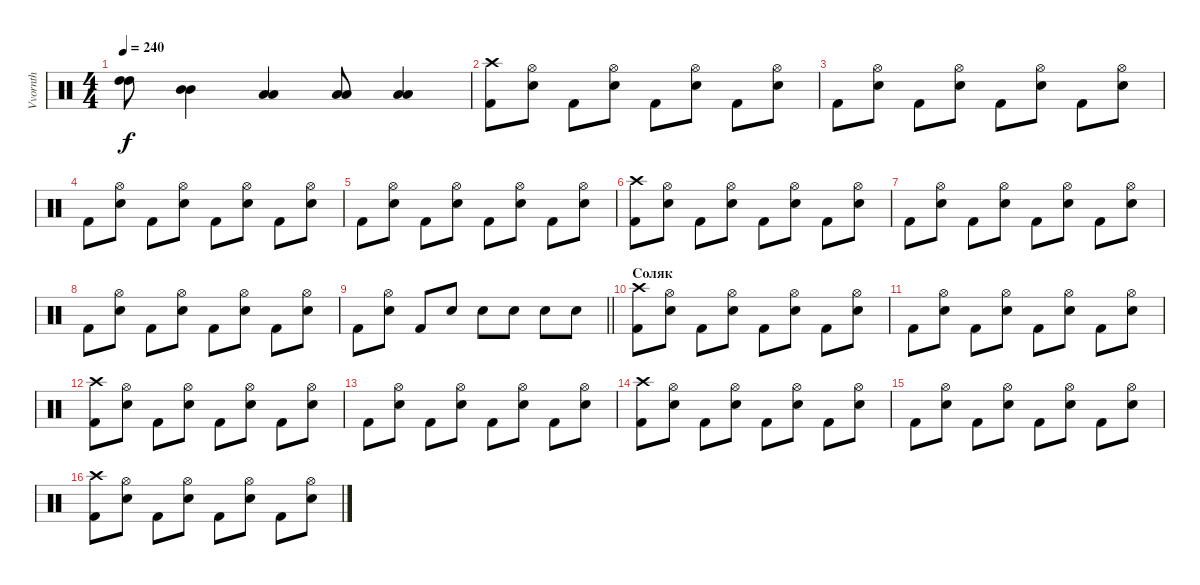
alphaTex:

\track ("Vvornth" "Vvornth") {instrument percussion}
\staff {score}
\articulation defaults
\ts (4 4)
\tempo 240
\clef neutral
\ks c
("High Tom (hit)" "High Tom (hit)").8{dy f} ("Mid Tom (hit)" "Mid Tom (hit)").4 ("Low Tom (hit)" "Low Tom (hit)").4 ("Low Tom (hit)" "Low Tom (hit)").8 ("Low Tom (hit)" "Low Tom (hit)").4 |
("Crash high (hit)" "Kick (hit) 2").8 ("Hi-Hat (open)" "Snare (hit) 2").8 "Kick (hit) 2".8 ("Hi-Hat (open)" "Snare (hit) 2").8 "Kick (hit) 2".8 ("Hi-Hat (open)" "Snare (hit) 2").8 "Kick (hit) 2".8 ("Hi-Hat (open)" "Snare (hit) 2").8 |
"Kick (hit) 2".8 ("Hi-Hat (open)" "Snare (hit) 2").8 "Kick (hit) 2".8 ("Hi-Hat (open)" "Snare (hit) 2").8 "Kick (hit) 2".8 ("Hi-Hat (open)" "Snare (hit) 2").8 "Kick (hit) 2".8 ("Hi-Hat (open)" "Snare (hit) 2").8 |
"Kick (hit) 2".8 ("Hi-Hat (open)" "Snare (hit) 2").8 "Kick (hit) 2".8 ("Hi-Hat (open)" "Snare (hit) 2").8 "Kick (hit) 2".8 ("Hi-Hat (open)" "Snare (hit) 2").8 "Kick (hit) 2".8 ("Hi-Hat (open)" "Snare (hit) 2").8 |
"Kick (hit) 2".8 ("Hi-Hat (open)" "Snare (hit) 2").8 "Kick (hit) 2".8 ("Hi-Hat (open)" "Snare (hit) 2").8 "Kick (hit) 2".8 ("Hi-Hat (open)" "Snare (hit) 2").8 "Kick (hit) 2".8 ("Hi-Hat (open)" "Snare (hit) 2").8 |
("Crash high (hit)" "Kick (hit) 2").8 ("Hi-Hat (open)" "Snare (hit) 2").8 "Kick (hit) 2".8 ("Hi-Hat (open)" "Snare (hit) 2").8 "Kick (hit) 2".8 ("Hi-Hat (open)" "Snare (hit) 2").8 "Kick (hit) 2".8 ("Hi-Hat (open)" "Snare (hit) 2").8 |
"Kick (hit) 2".8 ("Hi-Hat (open)" "Snare (hit) 2").8 "Kick (hit) 2".8 ("Hi-Hat (open)" "Snare (hit) 2").8 "Kick (hit) 2".8 ("Hi-Hat (open)" "Snare (hit) 2").8 "Kick (hit) 2".8 ("Hi-Hat (open)" "Snare (hit) 2").8 |
"Kick (hit) 2".8 ("Hi-Hat (open)" "Snare (hit) 2").8 "Kick (hit) 2".8 ("Hi-Hat (open)" "Snare (hit) 2").8 "Kick (hit) 2".8 ("Hi-Hat (open)" "Snare (hit) 2").8 "Kick (hit) 2".8 ("Hi-Hat (open)" "Snare (hit) 2").8 |
\barLineRight lightlight "Kick (hit) 2".8
("Hi-Hat (open)" "Snare (hit) 2").8 "Kick (hit) 2".8 "Snare (hit) 2".8 "Snare (hit) 2".8 "Snare (hit) 2".8 "Snare (hit) 2".8 "Snare (hit) 2".8 |
\section ("" "Соляк")
("Crash high (hit)" "Kick (hit) 2").8 ("Hi-Hat (open)" "Snare (hit) 2").8 "Kick (hit) 2".8 ("Hi-Hat (open)" "Snare (hit) 2").8 "Kick (hit) 2".8 ("Hi-Hat (open)" "Snare (hit) 2").8 "Kick (hit) 2".8 ("Hi-Hat (open)" "Snare (hit) 2").8 |
"Kick (hit) 2".8 ("Hi-Hat (open)" "Snare (hit) 2").8 "Kick (hit) 2".8 ("Hi-Hat (open)" "Snare (hit) 2").8 "Kick (hit) 2".8 ("Hi-Hat (open)" "Snare (hit) 2").8 "Kick (hit) 2".8 ("Hi-Hat (open)" "Snare (hit) 2").8 |
("Crash high (hit)" "Kick (hit) 2").8 ("Hi-Hat (open)" "Snare (hit) 2").8 "Kick (hit) 2".8 ("Hi-Hat (open)" "Snare (hit) 2").8 "Kick (hit) 2".8 ("Hi-Hat (open)" "Snare (hit) 2").8 "Kick (hit) 2".8 ("Hi-Hat (open)" "Snare (hit) 2").8 |
"Kick (hit) 2".8 ("Hi-Hat (open)" "Snare (hit) 2").8 "Kick (hit) 2".8 ("Hi-Hat (open)" "Snare (hit) 2").8 "Kick (hit) 2".8 ("Hi-Hat (open)" "Snare (hit) 2").8 "Kick (hit) 2".8 ("Hi-Hat (open)" "Snare (hit) 2").8 |
("Crash high (hit)" "Kick (hit) 2").8 ("Hi-Hat (open)" "Snare (hit) 2").8 "Kick (hit) 2".8 ("Hi-Hat (open)" "Snare (hit) 2").8 "Kick (hit) 2".8 ("Hi-Hat (open)" "Snare (hit) 2").8 "Kick (hit) 2".8 ("Hi-Hat (open)" "Snare (hit) 2").8 |
"Kick (hit) 2".8 ("Hi-Hat (open)" "Snare (hit) 2").8 "Kick (hit) 2".8 ("Hi-Hat (open)" "Snare (hit) 2").8 "Kick (hit) 2".8 ("Hi-Hat (open)" "Snare (hit) 2").8 "Kick (hit) 2".8 ("Hi-Hat (open)" "Snare (hit) 2").8 |
("Crash high (hit)" "Kick (hit) 2").8 ("Hi-Hat (open)" "Snare (hit) 2").8 "Kick (hit) 2".8 ("Hi-Hat (open)" "Snare (hit) 2").8 "Kick (hit) 2".8 ("Hi-Hat (open)" "Snare (hit) 2").8 "Kick (hit) 2".8 ("Hi-Hat (open)" "Snare (hit) 2").8
